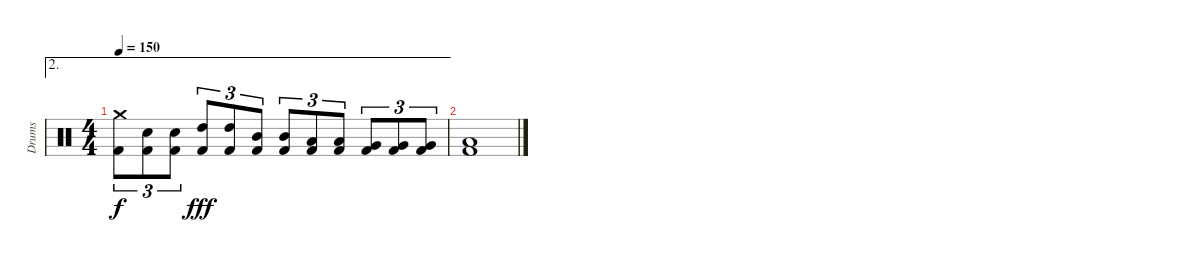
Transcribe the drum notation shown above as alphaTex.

\track ("Drums" "Drums") {instrument percussion}
\staff {score}
\articulation defaults
\ae 2
\ts (4 4)
\tempo 150
\clef neutral
\ks c
("Kick (hit) 2" "Crash medium (hit)").8{tu (3 2) dy f} ("Kick (hit) 2" "Electric Snare (hit)").8{tu (3 2)} ("Kick (hit) 2" "Electric Snare (hit)").8{tu (3 2)} ("Kick (hit) 2" "High Tom (hit)").8{tu (3 2) dy fff} ("Kick (hit) 2" "High Tom (hit)").8{tu (3 2)} ("Kick (hit) 2" "Mid Tom (hit)").8{tu (3 2)} ("Kick (hit) 2" "Mid Tom (hit)").8{tu (3 2)} ("Kick (hit) 2" "Low Tom (hit)").8{tu (3 2)} ("Kick (hit) 2" "Low Tom (hit)").8{tu (3 2)} ("Kick (hit) 2" "Very Low Tom (hit)").8{tu (3 2)} ("Kick (hit) 2" "Very Low Tom (hit)").8{tu (3 2)} ("Kick (hit) 2" "Very Low Tom (hit)").8{tu (3 2)} |
("Kick (hit) 2" "Low Floor Tom (hit)").1
